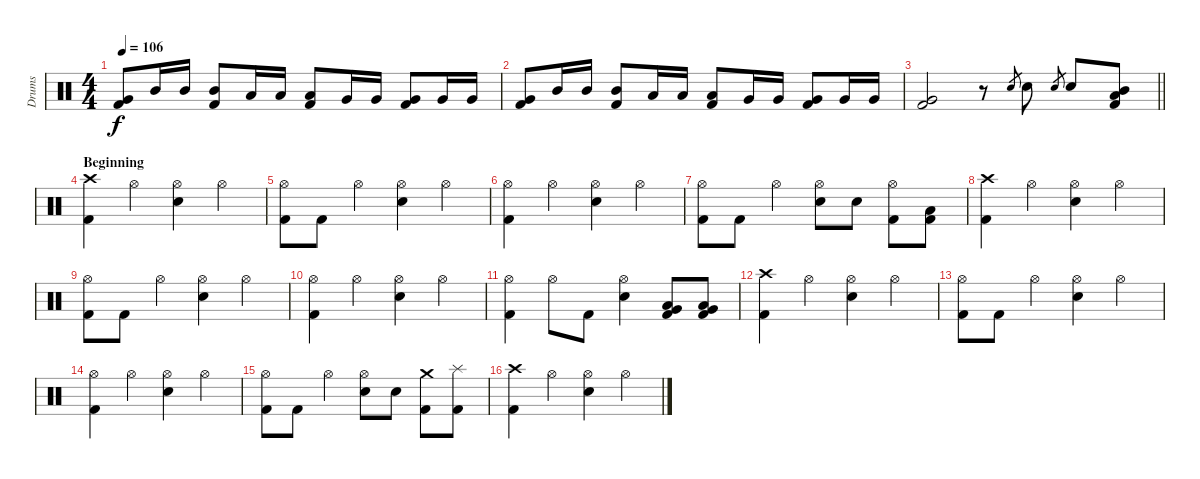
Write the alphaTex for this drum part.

\track ("Drums" "Drums") {instrument percussion}
\staff {score}
\articulation defaults
\ts (4 4)
\tempo 106
\clef neutral
\ks c
("Very Low Tom (hit)" "Kick (hit) 2").8{dy f} "Mid Tom (hit)".16 "Mid Tom (hit)".16 ("Mid Tom (hit)" "Kick (hit) 2").8 "Low Tom (hit)".16 "Low Tom (hit)".16 ("Low Tom (hit)" "Kick (hit) 2").8 "Very Low Tom (hit)".16 "Very Low Tom (hit)".16 ("Very Low Tom (hit)" "Kick (hit) 2").8 "Very Low Tom (hit)".16 "Very Low Tom (hit)".16 |
("Very Low Tom (hit)" "Kick (hit) 2").8 "Mid Tom (hit)".16 "Mid Tom (hit)".16 ("Mid Tom (hit)" "Kick (hit) 2").8 "Low Tom (hit)".16 "Low Tom (hit)".16 ("Low Tom (hit)" "Kick (hit) 2").8 "Very Low Tom (hit)".16 "Very Low Tom (hit)".16 ("Very Low Tom (hit)" "Kick (hit) 2").8 "Very Low Tom (hit)".16 "Very Low Tom (hit)".16 |
\barLineRight lightlight
("Very Low Tom (hit)" "Kick (hit) 2").2 r.8 "Electric Snare (hit)".8{gr} "Electric Snare (hit)".8 "Electric Snare (hit)".8{gr} "Electric Snare (hit)".8 ("Mid Tom (hit)" "Low Tom (hit)" "Kick (hit) 2").8 |
\section ("" "Beginning")
("Crash high (hit)" "Kick (hit) 2").4 "Hi-Hat (open)".4 ("Hi-Hat (open)" "Electric Snare (hit)").4 "Hi-Hat (open)".4 |
("Hi-Hat (open)" "Kick (hit) 2").8 "Kick (hit) 2".8 "Hi-Hat (open)".4 ("Hi-Hat (open)" "Electric Snare (hit)").4 "Hi-Hat (open)".4 |
("Hi-Hat (open)" "Kick (hit) 2").4 "Hi-Hat (open)".4 ("Hi-Hat (open)" "Electric Snare (hit)").4 "Hi-Hat (open)".4 |
("Hi-Hat (open)" "Kick (hit) 2").8 "Kick (hit) 2".8 "Hi-Hat (open)".4 ("Hi-Hat (open)" "Electric Snare (hit)").8 "Electric Snare (hit)".8 ("Hi-Hat (open)" "Kick (hit) 2").8 ("Low Tom (hit)" "Kick (hit) 2").8 |
("Crash high (hit)" "Kick (hit) 2").4 "Hi-Hat (open)".4 ("Hi-Hat (open)" "Electric Snare (hit)").4 "Hi-Hat (open)".4 |
("Hi-Hat (open)" "Kick (hit) 2").8 "Kick (hit) 2".8 "Hi-Hat (open)".4 ("Hi-Hat (open)" "Electric Snare (hit)").4 "Hi-Hat (open)".4 |
("Hi-Hat (open)" "Kick (hit) 2").4 "Hi-Hat (open)".4 ("Hi-Hat (open)" "Electric Snare (hit)").4 "Hi-Hat (open)".4 |
("Hi-Hat (open)" "Kick (hit) 2").4 "Hi-Hat (open)".8 "Kick (hit) 2".8 ("Hi-Hat (open)" "Electric Snare (hit)").4 ("Low Tom (hit)" "Very Low Tom (hit)" "Kick (hit) 2").8 ("Low Tom (hit)" "Very Low Tom (hit)" "Kick (hit) 2").8 |
("Crash high (hit)" "Kick (hit) 2").4 "Hi-Hat (open)".4 ("Hi-Hat (open)" "Electric Snare (hit)").4 "Hi-Hat (open)".4 |
("Hi-Hat (open)" "Kick (hit) 2").8 "Kick (hit) 2".8 "Hi-Hat (open)".4 ("Hi-Hat (open)" "Electric Snare (hit)").4 "Hi-Hat (open)".4 |
("Hi-Hat (open)" "Kick (hit) 2").4 "Hi-Hat (open)".4 ("Hi-Hat (open)" "Electric Snare (hit)").4 "Hi-Hat (open)".4 |
("Hi-Hat (open)" "Kick (hit) 2").8 "Kick (hit) 2".8 "Hi-Hat (open)".4 ("Hi-Hat (open)" "Electric Snare (hit)").8 "Electric Snare (hit)".8 ("Crash medium (hit)" "Kick (hit) 2").8 ("Splash (hit)" "Kick (hit) 2").8 |
("Crash high (hit)" "Kick (hit) 2").4 "Hi-Hat (open)".4 ("Hi-Hat (open)" "Electric Snare (hit)").4 "Hi-Hat (open)".4
